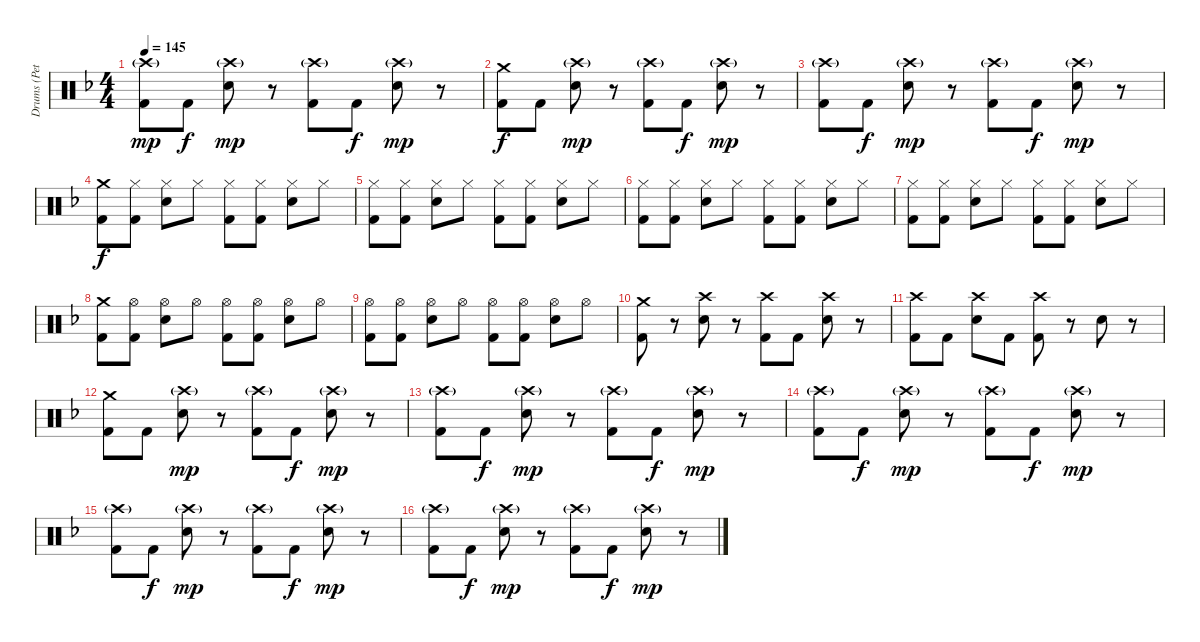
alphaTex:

\track ("Drums (Pete)" "Drums (Pet") {instrument percussion}
\staff {score}
\articulation defaults
\ts (4 4)
\tempo 145
\clef neutral
\ks f
("Crash high (hit)"{g} "Kick (hit) 2").8{dy mp} "Kick (hit) 2".8{dy f} ("Crash high (hit)"{g} "Snare (hit) 2").8{dy mp} r.8 ("Crash high (hit)"{g} "Kick (hit) 2").8 "Kick (hit) 2".8{dy f} ("Crash high (hit)"{g} "Snare (hit) 2").8{dy mp} r.8 |
("Crash medium (hit)" "Kick (hit) 2").8{dy f} "Kick (hit) 2".8 ("Crash high (hit)"{g} "Snare (hit) 2").8{dy mp} r.8 ("Crash high (hit)"{g} "Kick (hit) 2").8 "Kick (hit) 2".8{dy f} ("Crash high (hit)"{g} "Snare (hit) 2").8{dy mp} r.8 |
("Crash high (hit)"{g} "Kick (hit) 2").8 "Kick (hit) 2".8{dy f} ("Crash high (hit)"{g} "Snare (hit) 2").8{dy mp} r.8 ("Crash high (hit)"{g} "Kick (hit) 2").8 "Kick (hit) 2".8{dy f} ("Crash high (hit)"{g} "Snare (hit) 2").8{dy mp} r.8 |
("Crash medium (hit)" "Kick (hit) 2").8{dy f} ("Hi-Hat (closed)" "Kick (hit) 2").8 ("Hi-Hat (closed)" "Snare (hit) 2").8 "Hi-Hat (closed)".8 ("Hi-Hat (closed)" "Kick (hit) 2").8 ("Hi-Hat (closed)" "Kick (hit) 2").8 ("Hi-Hat (closed)" "Snare (hit) 2").8 "Hi-Hat (closed)".8 |
("Hi-Hat (closed)" "Kick (hit) 2").8 ("Hi-Hat (closed)" "Kick (hit) 2").8 ("Hi-Hat (closed)" "Snare (hit) 2").8 "Hi-Hat (closed)".8 ("Hi-Hat (closed)" "Kick (hit) 2").8 ("Hi-Hat (closed)" "Kick (hit) 2").8 ("Hi-Hat (closed)" "Snare (hit) 2").8 "Hi-Hat (closed)".8 |
("Hi-Hat (closed)" "Kick (hit) 2").8 ("Hi-Hat (closed)" "Kick (hit) 2").8 ("Hi-Hat (closed)" "Snare (hit) 2").8 "Hi-Hat (closed)".8 ("Hi-Hat (closed)" "Kick (hit) 2").8 ("Hi-Hat (closed)" "Kick (hit) 2").8 ("Hi-Hat (closed)" "Snare (hit) 2").8 "Hi-Hat (closed)".8 |
("Hi-Hat (closed)" "Kick (hit) 2").8 ("Hi-Hat (closed)" "Kick (hit) 2").8 ("Hi-Hat (closed)" "Snare (hit) 2").8 "Hi-Hat (closed)".8 ("Hi-Hat (closed)" "Kick (hit) 2").8 ("Hi-Hat (closed)" "Kick (hit) 2").8 ("Hi-Hat (closed)" "Snare (hit) 2").8 "Hi-Hat (closed)".8 |
("Crash medium (hit)" "Kick (hit) 2").8 ("Hi-Hat (open)" "Kick (hit) 2").8 ("Hi-Hat (open)" "Snare (hit) 2").8 "Hi-Hat (open)".8 ("Hi-Hat (open)" "Kick (hit) 2").8 ("Hi-Hat (open)" "Kick (hit) 2").8 ("Hi-Hat (open)" "Snare (hit) 2").8 "Hi-Hat (open)".8 |
("Hi-Hat (open)" "Kick (hit) 2").8 ("Hi-Hat (open)" "Kick (hit) 2").8 ("Hi-Hat (open)" "Snare (hit) 2").8 "Hi-Hat (open)".8 ("Hi-Hat (open)" "Kick (hit) 2").8 ("Hi-Hat (open)" "Kick (hit) 2").8 ("Hi-Hat (open)" "Snare (hit) 2").8 "Hi-Hat (open)".8 |
("Crash medium (hit)" "Kick (hit) 2").8 r.8 ("Crash high (hit)" "Snare (hit) 2").8 r.8 ("Crash high (hit)" "Kick (hit) 2").8 "Kick (hit) 2".8 ("Crash high (hit)" "Snare (hit) 2").8 r.8 |
("Crash high (hit)" "Kick (hit) 2").8 "Kick (hit) 2".8 ("Crash high (hit)" "Snare (hit) 2").8 "Kick (hit) 2".8 ("Crash high (hit)" "Kick (hit) 2").8 r.8 "Snare (hit) 2".8 r.8 |
("Crash medium (hit)" "Kick (hit) 2").8 "Kick (hit) 2".8 ("Crash high (hit)"{g} "Snare (hit) 2").8{dy mp} r.8 ("Crash high (hit)"{g} "Kick (hit) 2").8 "Kick (hit) 2".8{dy f} ("Crash high (hit)"{g} "Snare (hit) 2").8{dy mp} r.8 |
("Crash high (hit)"{g} "Kick (hit) 2").8 "Kick (hit) 2".8{dy f} ("Crash high (hit)"{g} "Snare (hit) 2").8{dy mp} r.8 ("Crash high (hit)"{g} "Kick (hit) 2").8 "Kick (hit) 2".8{dy f} ("Crash high (hit)"{g} "Snare (hit) 2").8{dy mp} r.8 |
("Crash high (hit)"{g} "Kick (hit) 2").8 "Kick (hit) 2".8{dy f} ("Crash high (hit)"{g} "Snare (hit) 2").8{dy mp} r.8 ("Crash high (hit)"{g} "Kick (hit) 2").8 "Kick (hit) 2".8{dy f} ("Crash high (hit)"{g} "Snare (hit) 2").8{dy mp} r.8 |
("Crash high (hit)"{g} "Kick (hit) 2").8 "Kick (hit) 2".8{dy f} ("Crash high (hit)"{g} "Snare (hit) 2").8{dy mp} r.8 ("Crash high (hit)"{g} "Kick (hit) 2").8 "Kick (hit) 2".8{dy f} ("Crash high (hit)"{g} "Snare (hit) 2").8{dy mp} r.8 |
("Crash high (hit)"{g} "Kick (hit) 2").8 "Kick (hit) 2".8{dy f} ("Crash high (hit)"{g} "Snare (hit) 2").8{dy mp} r.8 ("Crash high (hit)"{g} "Kick (hit) 2").8 "Kick (hit) 2".8{dy f} ("Crash high (hit)"{g} "Snare (hit) 2").8{dy mp} r.8
